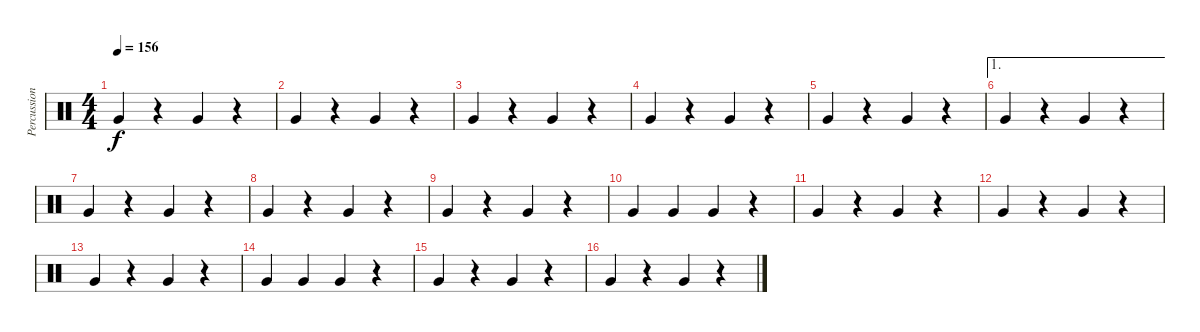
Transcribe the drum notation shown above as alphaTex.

\track ("Percussions" "Percussion") {instrument percussion}
\staff {score}
\articulation defaults
\ts (4 4)
\tempo 156
\clef neutral
\ks c "Very Low Tom (hit)".4{dy f}
r.4 "Very Low Tom (hit)".4 r.4 |
"Very Low Tom (hit)".4 r.4 "Very Low Tom (hit)".4 r.4 |
"Very Low Tom (hit)".4 r.4 "Very Low Tom (hit)".4 r.4 |
"Very Low Tom (hit)".4 r.4 "Very Low Tom (hit)".4 r.4 |
"Very Low Tom (hit)".4 r.4 "Very Low Tom (hit)".4 r.4 |
\ae 1 "Very Low Tom (hit)".4
r.4 "Very Low Tom (hit)".4 r.4 |
"Very Low Tom (hit)".4 r.4 "Very Low Tom (hit)".4 r.4 |
"Very Low Tom (hit)".4 r.4 "Very Low Tom (hit)".4 r.4 |
"Very Low Tom (hit)".4 r.4 "Very Low Tom (hit)".4 r.4 |
"Very Low Tom (hit)".4 "Very Low Tom (hit)".4 "Very Low Tom (hit)".4 r.4 |
"Very Low Tom (hit)".4 r.4 "Very Low Tom (hit)".4 r.4 |
"Very Low Tom (hit)".4 r.4 "Very Low Tom (hit)".4 r.4 |
"Very Low Tom (hit)".4 r.4 "Very Low Tom (hit)".4 r.4 |
"Very Low Tom (hit)".4 "Very Low Tom (hit)".4 "Very Low Tom (hit)".4 r.4 |
"Very Low Tom (hit)".4 r.4 "Very Low Tom (hit)".4 r.4 |
"Very Low Tom (hit)".4 r.4 "Very Low Tom (hit)".4 r.4
